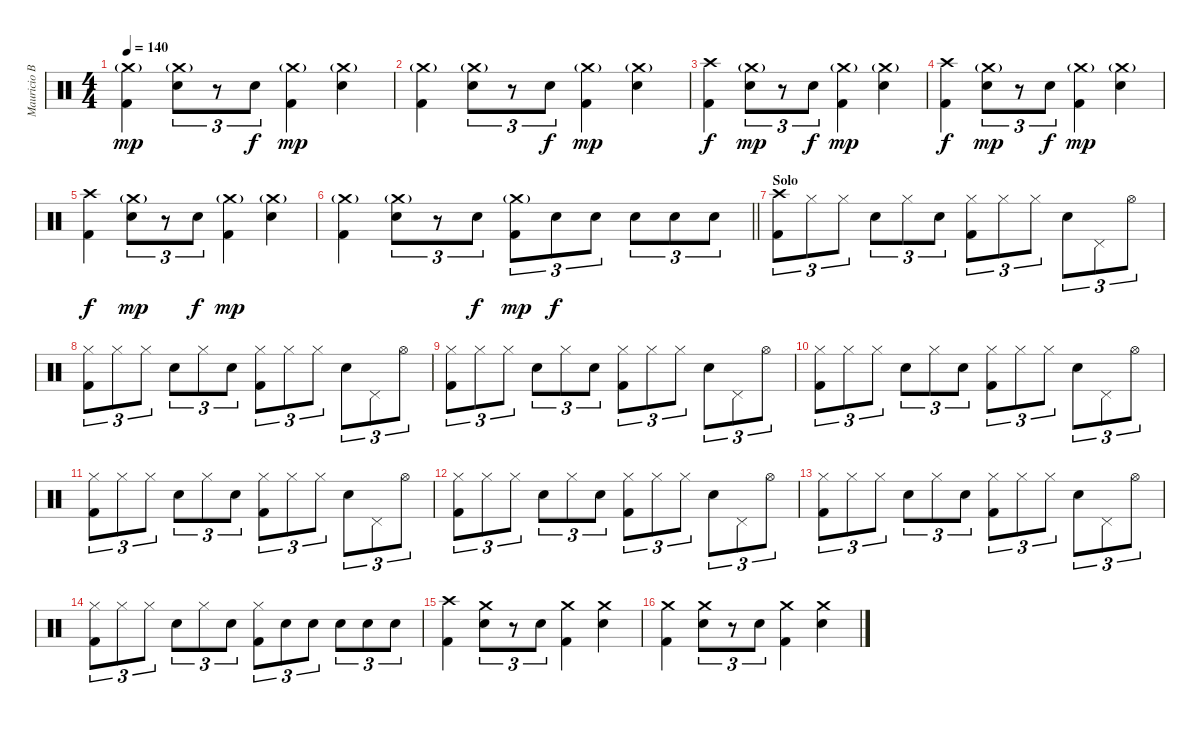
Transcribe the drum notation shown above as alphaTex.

\track ("Mauricio Basualto" "Mauricio B") {instrument percussion}
\staff {score}
\articulation defaults
\ts (4 4)
\tempo 140
\clef neutral
\ks c
("Crash medium (hit)"{g} "Kick (hit) 2").4{dy mp} ("Crash medium (hit)"{g} "Electric Snare (hit)").8{tu (3 2)} r.8{tu (3 2)} "Electric Snare (hit)".8{tu (3 2) dy f} ("Crash medium (hit)"{g} "Kick (hit) 2").4{dy mp} ("Crash medium (hit)"{g} "Electric Snare (hit)").4 |
("Crash medium (hit)"{g} "Kick (hit) 2").4 ("Crash medium (hit)"{g} "Electric Snare (hit)").8{tu (3 2)} r.8{tu (3 2)} "Electric Snare (hit)".8{tu (3 2) dy f} ("Crash medium (hit)"{g} "Kick (hit) 2").4{dy mp} ("Crash medium (hit)"{g} "Electric Snare (hit)").4 |
("Crash high (hit)" "Kick (hit) 2").4{dy f} ("Crash medium (hit)"{g} "Electric Snare (hit)").8{tu (3 2) dy mp} r.8{tu (3 2)} "Electric Snare (hit)".8{tu (3 2) dy f} ("Crash medium (hit)"{g} "Kick (hit) 2").4{dy mp} ("Crash medium (hit)"{g} "Electric Snare (hit)").4 |
("Crash high (hit)" "Kick (hit) 2").4{dy f} ("Crash medium (hit)"{g} "Electric Snare (hit)").8{tu (3 2) dy mp} r.8{tu (3 2)} "Electric Snare (hit)".8{tu (3 2) dy f} ("Crash medium (hit)"{g} "Kick (hit) 2").4{dy mp} ("Crash medium (hit)"{g} "Electric Snare (hit)").4 |
("Crash high (hit)" "Kick (hit) 2").4{dy f} ("Crash medium (hit)"{g} "Electric Snare (hit)").8{tu (3 2) dy mp} r.8{tu (3 2)} "Electric Snare (hit)".8{tu (3 2) dy f} ("Crash medium (hit)"{g} "Kick (hit) 2").4{dy mp} ("Crash medium (hit)"{g} "Electric Snare (hit)").4 |
\barLineRight lightlight
("Crash medium (hit)"{g} "Kick (hit) 2").4 ("Crash medium (hit)"{g} "Electric Snare (hit)").8{tu (3 2)} r.8{tu (3 2)} "Electric Snare (hit)".8{tu (3 2) dy f} ("Crash medium (hit)"{g} "Kick (hit) 2").8{tu (3 2) dy mp} "Electric Snare (hit)".8{tu (3 2) dy f} "Electric Snare (hit)".8{tu (3 2)} "Electric Snare (hit)".8{tu (3 2)} "Electric Snare (hit)".8{tu (3 2)} "Electric Snare (hit)".8{tu (3 2)} |
\section ("" "Solo")
("Crash high (hit)" "Kick (hit) 2").8{tu (3 2)} "Hi-Hat (closed)".8{tu (3 2)} "Hi-Hat (closed)".8{tu (3 2)} "Electric Snare (hit)".8{tu (3 2)} "Hi-Hat (closed)".8{tu (3 2)} "Electric Snare (hit)".8{tu (3 2)} ("Hi-Hat (closed)" "Kick (hit) 2").8{tu (3 2)} "Hi-Hat (closed)".8{tu (3 2)} "Hi-Hat (closed)".8{tu (3 2)} "Electric Snare (hit)".8{tu (3 2)} "Pedal Hi-Hat (hit)".8{tu (3 2)} "Hi-Hat (open)".8{tu (3 2)} |
("Hi-Hat (closed)" "Kick (hit) 2").8{tu (3 2)} "Hi-Hat (closed)".8{tu (3 2)} "Hi-Hat (closed)".8{tu (3 2)} "Electric Snare (hit)".8{tu (3 2)} "Hi-Hat (closed)".8{tu (3 2)} "Electric Snare (hit)".8{tu (3 2)} ("Hi-Hat (closed)" "Kick (hit) 2").8{tu (3 2)} "Hi-Hat (closed)".8{tu (3 2)} "Hi-Hat (closed)".8{tu (3 2)} "Electric Snare (hit)".8{tu (3 2)} "Pedal Hi-Hat (hit)".8{tu (3 2)} "Hi-Hat (open)".8{tu (3 2)} |
("Hi-Hat (closed)" "Kick (hit) 2").8{tu (3 2)} "Hi-Hat (closed)".8{tu (3 2)} "Hi-Hat (closed)".8{tu (3 2)} "Electric Snare (hit)".8{tu (3 2)} "Hi-Hat (closed)".8{tu (3 2)} "Electric Snare (hit)".8{tu (3 2)} ("Hi-Hat (closed)" "Kick (hit) 2").8{tu (3 2)} "Hi-Hat (closed)".8{tu (3 2)} "Hi-Hat (closed)".8{tu (3 2)} "Electric Snare (hit)".8{tu (3 2)} "Pedal Hi-Hat (hit)".8{tu (3 2)} "Hi-Hat (open)".8{tu (3 2)} |
("Hi-Hat (closed)" "Kick (hit) 2").8{tu (3 2)} "Hi-Hat (closed)".8{tu (3 2)} "Hi-Hat (closed)".8{tu (3 2)} "Electric Snare (hit)".8{tu (3 2)} "Hi-Hat (closed)".8{tu (3 2)} "Electric Snare (hit)".8{tu (3 2)} ("Hi-Hat (closed)" "Kick (hit) 2").8{tu (3 2)} "Hi-Hat (closed)".8{tu (3 2)} "Hi-Hat (closed)".8{tu (3 2)} "Electric Snare (hit)".8{tu (3 2)} "Pedal Hi-Hat (hit)".8{tu (3 2)} "Hi-Hat (open)".8{tu (3 2)} |
("Hi-Hat (closed)" "Kick (hit) 2").8{tu (3 2)} "Hi-Hat (closed)".8{tu (3 2)} "Hi-Hat (closed)".8{tu (3 2)} "Electric Snare (hit)".8{tu (3 2)} "Hi-Hat (closed)".8{tu (3 2)} "Electric Snare (hit)".8{tu (3 2)} ("Hi-Hat (closed)" "Kick (hit) 2").8{tu (3 2)} "Hi-Hat (closed)".8{tu (3 2)} "Hi-Hat (closed)".8{tu (3 2)} "Electric Snare (hit)".8{tu (3 2)} "Pedal Hi-Hat (hit)".8{tu (3 2)} "Hi-Hat (open)".8{tu (3 2)} |
("Hi-Hat (closed)" "Kick (hit) 2").8{tu (3 2)} "Hi-Hat (closed)".8{tu (3 2)} "Hi-Hat (closed)".8{tu (3 2)} "Electric Snare (hit)".8{tu (3 2)} "Hi-Hat (closed)".8{tu (3 2)} "Electric Snare (hit)".8{tu (3 2)} ("Hi-Hat (closed)" "Kick (hit) 2").8{tu (3 2)} "Hi-Hat (closed)".8{tu (3 2)} "Hi-Hat (closed)".8{tu (3 2)} "Electric Snare (hit)".8{tu (3 2)} "Pedal Hi-Hat (hit)".8{tu (3 2)} "Hi-Hat (open)".8{tu (3 2)} |
("Hi-Hat (closed)" "Kick (hit) 2").8{tu (3 2)} "Hi-Hat (closed)".8{tu (3 2)} "Hi-Hat (closed)".8{tu (3 2)} "Electric Snare (hit)".8{tu (3 2)} "Hi-Hat (closed)".8{tu (3 2)} "Electric Snare (hit)".8{tu (3 2)} ("Hi-Hat (closed)" "Kick (hit) 2").8{tu (3 2)} "Hi-Hat (closed)".8{tu (3 2)} "Hi-Hat (closed)".8{tu (3 2)} "Electric Snare (hit)".8{tu (3 2)} "Pedal Hi-Hat (hit)".8{tu (3 2)} "Hi-Hat (open)".8{tu (3 2)} |
("Hi-Hat (closed)" "Kick (hit) 2").8{tu (3 2)} "Hi-Hat (closed)".8{tu (3 2)} "Hi-Hat (closed)".8{tu (3 2)} "Electric Snare (hit)".8{tu (3 2)} "Hi-Hat (closed)".8{tu (3 2)} "Electric Snare (hit)".8{tu (3 2)} ("Hi-Hat (closed)" "Kick (hit) 2").8{tu (3 2)} "Electric Snare (hit)".8{tu (3 2)} "Electric Snare (hit)".8{tu (3 2)} "Electric Snare (hit)".8{tu (3 2)} "Electric Snare (hit)".8{tu (3 2)} "Electric Snare (hit)".8{tu (3 2)} |
("Crash high (hit)" "Kick (hit) 2").4 ("Crash medium (hit)" "Electric Snare (hit)").8{tu (3 2)} r.8{tu (3 2)} "Electric Snare (hit)".8{tu (3 2)} ("Crash medium (hit)" "Kick (hit) 2").4 ("Crash medium (hit)" "Electric Snare (hit)").4 |
("Crash medium (hit)" "Kick (hit) 2").4 ("Crash medium (hit)" "Electric Snare (hit)").8{tu (3 2)} r.8{tu (3 2)} "Electric Snare (hit)".8{tu (3 2)} ("Crash medium (hit)" "Kick (hit) 2").4 ("Crash medium (hit)" "Electric Snare (hit)").4
